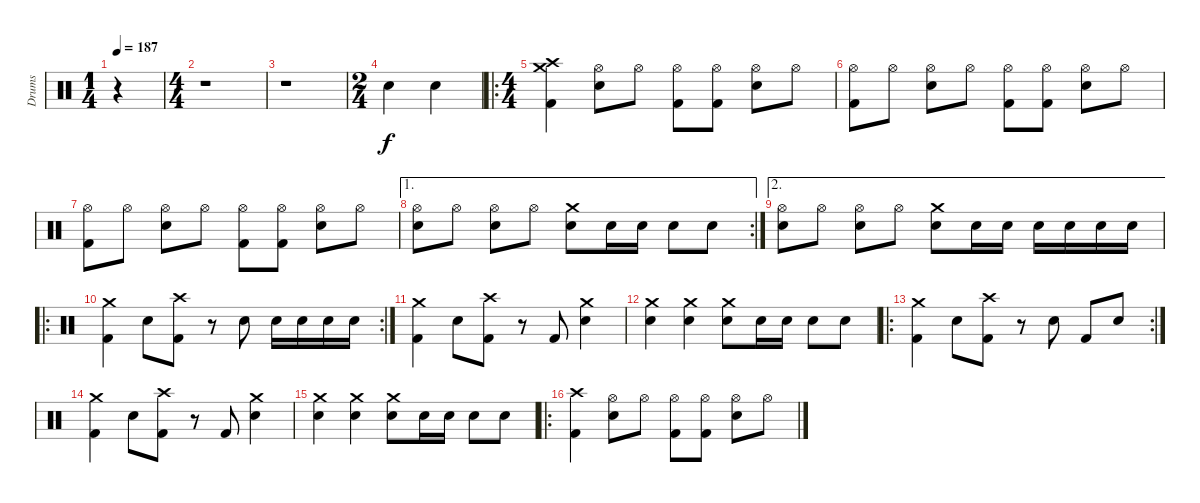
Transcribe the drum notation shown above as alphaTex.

\track ("Drums" "Drums") {instrument percussion}
\staff {score}
\articulation defaults
\ts (1 4)
\tempo 187
\clef neutral
\ks c
r.4{dy f} |
\ts (4 4)
r.1 |
r.1 |
\ts (2 4)
"Snare (hit) 2".4 "Snare (hit) 2".4 |
\ro
\ts (4 4)
("Crash high (hit)" "Crash medium (hit)" "Kick (hit) 2").4 ("Hi-Hat (open)" "Snare (hit) 2").8 "Hi-Hat (open)".8 ("Hi-Hat (open)" "Kick (hit) 2").8 ("Hi-Hat (open)" "Kick (hit) 2").8 ("Hi-Hat (open)" "Snare (hit) 2").8 "Hi-Hat (open)".8 |
("Hi-Hat (open)" "Kick (hit) 2").8 "Hi-Hat (open)".8 ("Hi-Hat (open)" "Snare (hit) 2").8 "Hi-Hat (open)".8 ("Hi-Hat (open)" "Kick (hit) 2").8 ("Hi-Hat (open)" "Kick (hit) 2").8 ("Hi-Hat (open)" "Snare (hit) 2").8 "Hi-Hat (open)".8 |
("Hi-Hat (open)" "Kick (hit) 2").8 "Hi-Hat (open)".8 ("Hi-Hat (open)" "Snare (hit) 2").8 "Hi-Hat (open)".8 ("Hi-Hat (open)" "Kick (hit) 2").8 ("Hi-Hat (open)" "Kick (hit) 2").8 ("Hi-Hat (open)" "Snare (hit) 2").8 "Hi-Hat (open)".8 |
\ae 1
\rc 2
("Hi-Hat (open)" "Snare (hit) 2").8 "Hi-Hat (open)".8 ("Hi-Hat (open)" "Snare (hit) 2").8 "Hi-Hat (open)".8 ("Crash medium (hit)" "Snare (hit) 2").8 "Snare (hit) 2".16 "Snare (hit) 2".16 "Snare (hit) 2".8 "Snare (hit) 2".8 |
\ae 2
("Hi-Hat (open)" "Snare (hit) 2").8 "Hi-Hat (open)".8 ("Hi-Hat (open)" "Snare (hit) 2").8 "Hi-Hat (open)".8 ("Crash medium (hit)" "Snare (hit) 2").8 "Snare (hit) 2".16 "Snare (hit) 2".16 "Snare (hit) 2".16 "Snare (hit) 2".16 "Snare (hit) 2".16 "Snare (hit) 2".16 |
\ro
\rc 2
("Crash medium (hit)" "Kick (hit) 2").4 "Snare (hit) 2".8 ("Crash high (hit)" "Kick (hit) 2").8 r.8 "Snare (hit) 2".8 "Snare (hit) 2".16 "Snare (hit) 2".16 "Snare (hit) 2".16 "Snare (hit) 2".16 |
("Crash medium (hit)" "Kick (hit) 2").4 "Snare (hit) 2".8 ("Crash high (hit)" "Kick (hit) 2").8 r.8 "Kick (hit) 2".8 ("Crash medium (hit)" "Snare (hit) 2").4 |
("Crash medium (hit)" "Snare (hit) 2").4 ("Crash medium (hit)" "Snare (hit) 2").4 ("Crash medium (hit)" "Snare (hit) 2").8 "Snare (hit) 2".16 "Snare (hit) 2".16 "Snare (hit) 2".8 "Snare (hit) 2".8 |
\ro
\rc 2
("Crash medium (hit)" "Kick (hit) 2").4 "Snare (hit) 2".8 ("Crash high (hit)" "Kick (hit) 2").8 r.8 "Snare (hit) 2".8 "Kick (hit) 2".8 "Snare (hit) 2".8 |
("Crash medium (hit)" "Kick (hit) 2").4 "Snare (hit) 2".8 ("Crash high (hit)" "Kick (hit) 2").8 r.8 "Kick (hit) 2".8 ("Crash medium (hit)" "Snare (hit) 2").4 |
("Crash medium (hit)" "Snare (hit) 2").4 ("Crash medium (hit)" "Snare (hit) 2").4 ("Crash medium (hit)" "Snare (hit) 2").8 "Snare (hit) 2".16 "Snare (hit) 2".16 "Snare (hit) 2".8 "Snare (hit) 2".8 |
\ro
("Crash high (hit)" "Kick (hit) 2").4 ("Hi-Hat (open)" "Snare (hit) 2").8 "Hi-Hat (open)".8 ("Hi-Hat (open)" "Kick (hit) 2").8 ("Hi-Hat (open)" "Kick (hit) 2").8 ("Hi-Hat (open)" "Snare (hit) 2").8 "Hi-Hat (open)".8
